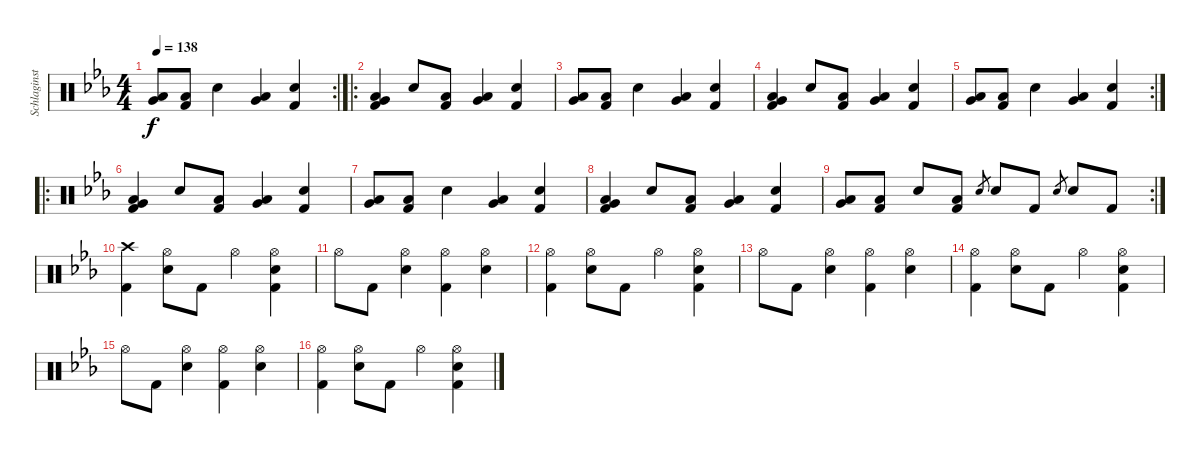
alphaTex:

\track ("Schlaginstrumente - Auswahl" "Schlaginst") {instrument percussion}
\staff {score}
\articulation defaults
\rc 2
\ts (4 4)
\tempo 138
\clef neutral
\ks eb
("Low Tom (hit)" "Very Low Tom (hit)").8{dy f} ("Low Floor Tom (hit)" "Kick (hit) 2").8 "Electric Snare (hit)".4 ("Very Low Tom (hit)" "Low Floor Tom (hit)").4 ("Electric Snare (hit)" "Kick (hit) 2").4 |
\ro
("Very Low Tom (hit)" "Low Floor Tom (hit)" "Kick (hit) 2").4 "Electric Snare (hit)".8 ("Low Floor Tom (hit)" "Kick (hit) 2").8 ("Low Tom (hit)" "Very Low Tom (hit)").4 ("Electric Snare (hit)" "Kick (hit) 2").4 |
("Low Tom (hit)" "Very Low Tom (hit)").8 ("Low Floor Tom (hit)" "Kick (hit) 2").8 "Electric Snare (hit)".4 ("Very Low Tom (hit)" "Low Floor Tom (hit)").4 ("Electric Snare (hit)" "Kick (hit) 2").4 |
("Very Low Tom (hit)" "Low Floor Tom (hit)" "Kick (hit) 2").4 "Electric Snare (hit)".8 ("Low Floor Tom (hit)" "Kick (hit) 2").8 ("Low Tom (hit)" "Very Low Tom (hit)").4 ("Electric Snare (hit)" "Kick (hit) 2").4 |
\rc 2
("Low Tom (hit)" "Very Low Tom (hit)").8 ("Low Floor Tom (hit)" "Kick (hit) 2").8 "Electric Snare (hit)".4 ("Very Low Tom (hit)" "Low Floor Tom (hit)").4 ("Electric Snare (hit)" "Kick (hit) 2").4 |
\ro
("Very Low Tom (hit)" "Low Floor Tom (hit)" "Kick (hit) 2").4 "Electric Snare (hit)".8 ("Low Floor Tom (hit)" "Kick (hit) 2").8 ("Low Tom (hit)" "Very Low Tom (hit)").4 ("Electric Snare (hit)" "Kick (hit) 2").4 |
("Low Tom (hit)" "Very Low Tom (hit)").8 ("Low Floor Tom (hit)" "Kick (hit) 2").8 "Electric Snare (hit)".4 ("Very Low Tom (hit)" "Low Floor Tom (hit)").4 ("Electric Snare (hit)" "Kick (hit) 2").4 |
("Very Low Tom (hit)" "Low Floor Tom (hit)" "Kick (hit) 2").4 "Electric Snare (hit)".8 ("Low Floor Tom (hit)" "Kick (hit) 2").8 ("Low Tom (hit)" "Very Low Tom (hit)").4 ("Electric Snare (hit)" "Kick (hit) 2").4 |
\rc 2
("Low Tom (hit)" "Very Low Tom (hit)").8 ("Low Floor Tom (hit)" "Kick (hit) 2").8 "Electric Snare (hit)".8 ("Low Floor Tom (hit)" "Kick (hit) 2").8 "Electric Snare (hit)".8{gr} "Electric Snare (hit)".8 "Kick (hit) 2".8 "Electric Snare (hit)".8{gr} "Electric Snare (hit)".8 "Kick (hit) 2".8 |
("Crash high (hit)" "Kick (hit) 2").4 ("Hi-Hat (open)" "Electric Snare (hit)").8 "Kick (hit) 2".8 "Hi-Hat (open)".4 ("Hi-Hat (open)" "Electric Snare (hit)" "Kick (hit) 2").4 |
"Hi-Hat (open)".8 "Kick (hit) 2".8 ("Hi-Hat (open)" "Electric Snare (hit)").4 ("Hi-Hat (open)" "Kick (hit) 2").4 ("Hi-Hat (open)" "Electric Snare (hit)").4 |
("Hi-Hat (open)" "Kick (hit) 2").4 ("Hi-Hat (open)" "Electric Snare (hit)").8 "Kick (hit) 2".8 "Hi-Hat (open)".4 ("Hi-Hat (open)" "Electric Snare (hit)" "Kick (hit) 2").4 |
"Hi-Hat (open)".8 "Kick (hit) 2".8 ("Hi-Hat (open)" "Electric Snare (hit)").4 ("Hi-Hat (open)" "Kick (hit) 2").4 ("Hi-Hat (open)" "Electric Snare (hit)").4 |
("Hi-Hat (open)" "Kick (hit) 2").4 ("Hi-Hat (open)" "Electric Snare (hit)").8 "Kick (hit) 2".8 "Hi-Hat (open)".4 ("Hi-Hat (open)" "Electric Snare (hit)" "Kick (hit) 2").4 |
"Hi-Hat (open)".8 "Kick (hit) 2".8 ("Hi-Hat (open)" "Electric Snare (hit)").4 ("Hi-Hat (open)" "Kick (hit) 2").4 ("Hi-Hat (open)" "Electric Snare (hit)").4 |
("Hi-Hat (open)" "Kick (hit) 2").4 ("Hi-Hat (open)" "Electric Snare (hit)").8 "Kick (hit) 2".8 "Hi-Hat (open)".4 ("Hi-Hat (open)" "Electric Snare (hit)" "Kick (hit) 2").4
